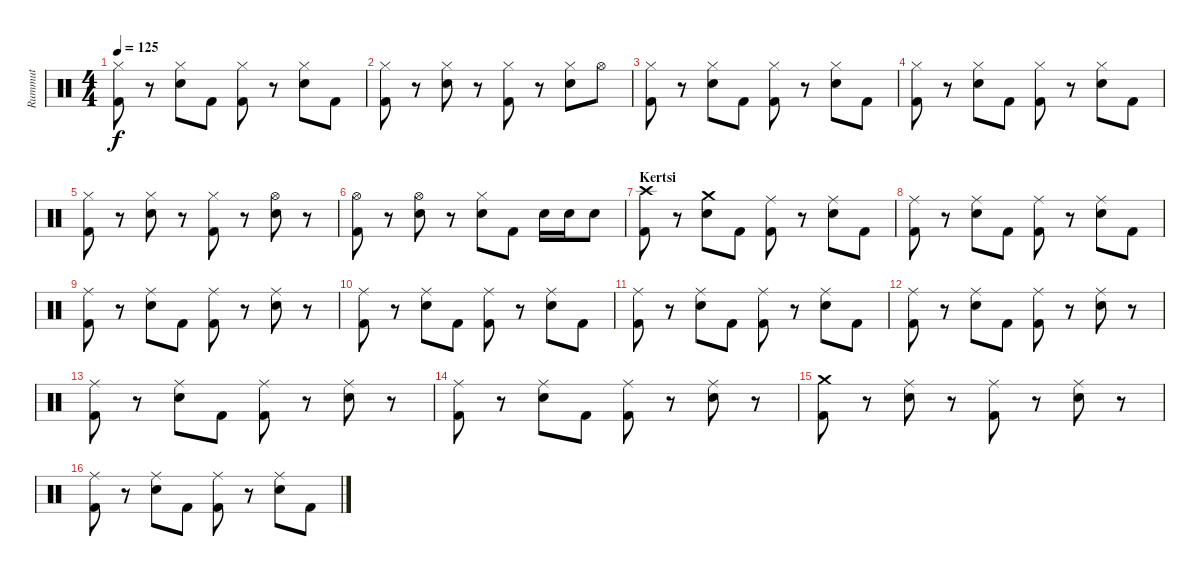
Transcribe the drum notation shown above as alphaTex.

\track ("Rummut" "Rummut") {instrument percussion}
\staff {score}
\articulation defaults
\ts (4 4)
\tempo 125
\clef neutral
\ks c
("Hi-Hat (closed)" "Kick (hit) 2").8{dy f} r.8 ("Hi-Hat (closed)" "Snare (hit) 2").8 "Kick (hit) 2".8 ("Hi-Hat (closed)" "Kick (hit) 2").8 r.8 ("Hi-Hat (closed)" "Snare (hit) 2").8 "Kick (hit) 2".8 |
("Hi-Hat (closed)" "Kick (hit) 2").8 r.8 ("Hi-Hat (closed)" "Snare (hit) 2").8 r.8 ("Hi-Hat (closed)" "Kick (hit) 2").8 r.8 ("Hi-Hat (closed)" "Snare (hit) 2").8 "Hi-Hat (open)".8 |
("Hi-Hat (closed)" "Kick (hit) 2").8 r.8 ("Hi-Hat (closed)" "Snare (hit) 2").8 "Kick (hit) 2".8 ("Hi-Hat (closed)" "Kick (hit) 2").8 r.8 ("Hi-Hat (closed)" "Snare (hit) 2").8 "Kick (hit) 2".8 |
("Hi-Hat (closed)" "Kick (hit) 2").8 r.8 ("Hi-Hat (closed)" "Snare (hit) 2").8 "Kick (hit) 2".8 ("Hi-Hat (closed)" "Kick (hit) 2").8 r.8 ("Hi-Hat (closed)" "Snare (hit) 2").8 "Kick (hit) 2".8 |
("Hi-Hat (closed)" "Kick (hit) 2").8 r.8 ("Hi-Hat (closed)" "Snare (hit) 2").8 r.8 ("Hi-Hat (closed)" "Kick (hit) 2").8 r.8 ("Hi-Hat (open)" "Snare (hit) 2").8 r.8 |
("Hi-Hat (open)" "Kick (hit) 2").8 r.8 ("Hi-Hat (open)" "Snare (hit) 2").8 r.8 ("Hi-Hat (closed)" "Snare (hit) 2").8 "Kick (hit) 2".8 "Snare (hit) 2".16 "Snare (hit) 2".16 "Snare (hit) 2".8 |
\section ("" "Kertsi")
("Crash high (hit)" "Kick (hit) 2").8 r.8 ("Crash medium (hit)" "Snare (hit) 2").8 "Kick (hit) 2".8 ("Ride (middle)" "Kick (hit) 2").8 r.8 ("Ride (middle)" "Snare (hit) 2").8 "Kick (hit) 2".8 |
("Ride (middle)" "Kick (hit) 2").8 r.8 ("Ride (middle)" "Snare (hit) 2").8 "Kick (hit) 2".8 ("Ride (middle)" "Kick (hit) 2").8 r.8 ("Ride (middle)" "Snare (hit) 2").8 "Kick (hit) 2".8 |
("Ride (middle)" "Kick (hit) 2").8 r.8 ("Ride (middle)" "Snare (hit) 2").8 "Kick (hit) 2".8 ("Ride (middle)" "Kick (hit) 2").8 r.8 ("Ride (middle)" "Snare (hit) 2").8 r.8 |
("Ride (middle)" "Kick (hit) 2").8 r.8 ("Ride (middle)" "Snare (hit) 2").8 "Kick (hit) 2".8 ("Ride (middle)" "Kick (hit) 2").8 r.8 ("Ride (middle)" "Snare (hit) 2").8 "Kick (hit) 2".8 |
("Ride (middle)" "Kick (hit) 2").8 r.8 ("Ride (middle)" "Snare (hit) 2").8 "Kick (hit) 2".8 ("Ride (middle)" "Kick (hit) 2").8 r.8 ("Ride (middle)" "Snare (hit) 2").8 "Kick (hit) 2".8 |
("Ride (middle)" "Kick (hit) 2").8 r.8 ("Ride (middle)" "Snare (hit) 2").8 "Kick (hit) 2".8 ("Ride (middle)" "Kick (hit) 2").8 r.8 ("Ride (middle)" "Snare (hit) 2").8 r.8 |
("Ride (middle)" "Kick (hit) 2").8 r.8 ("Ride (middle)" "Snare (hit) 2").8 "Kick (hit) 2".8 ("Ride (middle)" "Kick (hit) 2").8 r.8 ("Ride (middle)" "Snare (hit) 2").8 r.8 |
("Ride (middle)" "Kick (hit) 2").8 r.8 ("Ride (middle)" "Snare (hit) 2").8 "Kick (hit) 2".8 ("Ride (middle)" "Kick (hit) 2").8 r.8 ("Ride (middle)" "Snare (hit) 2").8 r.8 |
("Crash medium (hit)" "Kick (hit) 2").8 r.8 ("Ride (middle)" "Snare (hit) 2").8 r.8 ("Ride (middle)" "Kick (hit) 2").8 r.8 ("Ride (middle)" "Snare (hit) 2").8 r.8 |
("Ride (middle)" "Kick (hit) 2").8 r.8 ("Ride (middle)" "Snare (hit) 2").8 "Kick (hit) 2".8 ("Ride (middle)" "Kick (hit) 2").8 r.8 ("Ride (middle)" "Snare (hit) 2").8 "Kick (hit) 2".8
